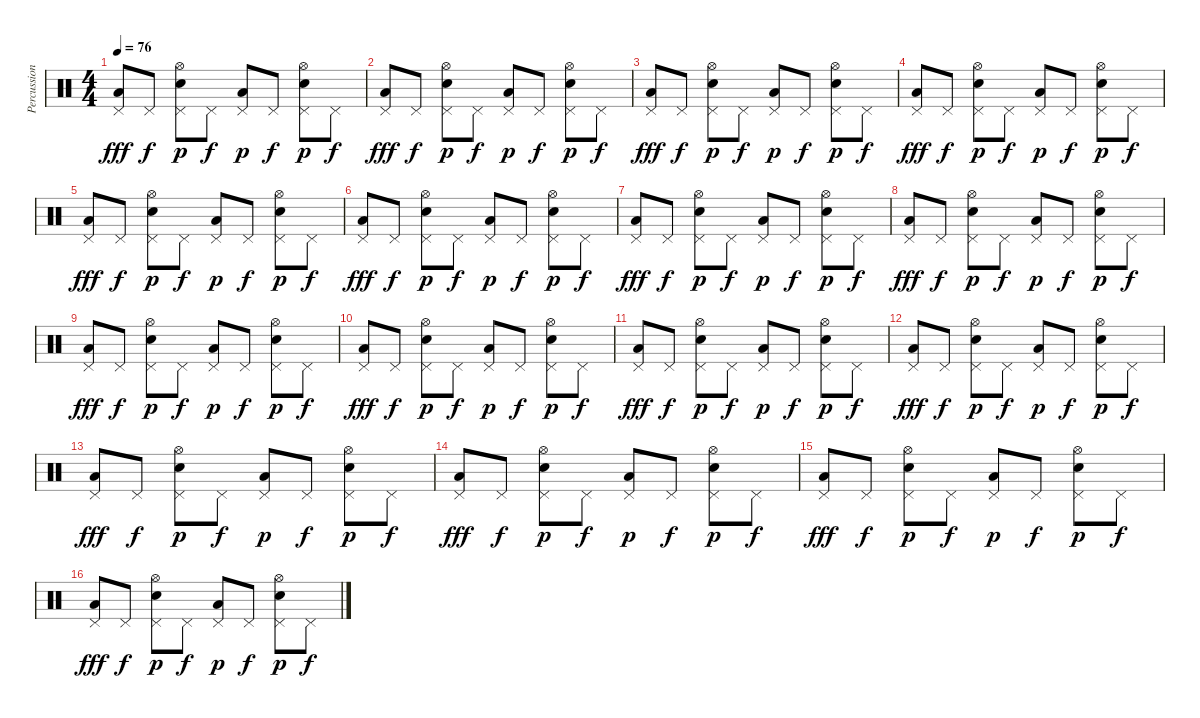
\track ("Percussion" "Percussion") {instrument percussion}
\staff {score}
\articulation defaults
\ts (4 4)
\tempo 76
\clef neutral
\ks c
("Low Floor Tom (hit)" "Pedal Hi-Hat (hit)").8{dy fff} "Pedal Hi-Hat (hit)".8{dy f} ("Electric Snare (hit)" "Pedal Hi-Hat (hit)" "Hi-Hat (open)").8{dy p} "Pedal Hi-Hat (hit)".8{dy f} ("Low Floor Tom (hit)" "Pedal Hi-Hat (hit)").8{dy p} "Pedal Hi-Hat (hit)".8{dy f} ("Electric Snare (hit)" "Pedal Hi-Hat (hit)" "Hi-Hat (open)").8{dy p} "Pedal Hi-Hat (hit)".8{dy f} |
("Low Floor Tom (hit)" "Pedal Hi-Hat (hit)").8{dy fff} "Pedal Hi-Hat (hit)".8{dy f} ("Electric Snare (hit)" "Pedal Hi-Hat (hit)" "Hi-Hat (open)").8{dy p} "Pedal Hi-Hat (hit)".8{dy f} ("Low Floor Tom (hit)" "Pedal Hi-Hat (hit)").8{dy p} "Pedal Hi-Hat (hit)".8{dy f} ("Electric Snare (hit)" "Pedal Hi-Hat (hit)" "Hi-Hat (open)").8{dy p} "Pedal Hi-Hat (hit)".8{dy f} |
("Low Floor Tom (hit)" "Pedal Hi-Hat (hit)").8{dy fff} "Pedal Hi-Hat (hit)".8{dy f} ("Electric Snare (hit)" "Pedal Hi-Hat (hit)" "Hi-Hat (open)").8{dy p} "Pedal Hi-Hat (hit)".8{dy f} ("Low Floor Tom (hit)" "Pedal Hi-Hat (hit)").8{dy p} "Pedal Hi-Hat (hit)".8{dy f} ("Electric Snare (hit)" "Pedal Hi-Hat (hit)" "Hi-Hat (open)").8{dy p} "Pedal Hi-Hat (hit)".8{dy f} |
("Low Floor Tom (hit)" "Pedal Hi-Hat (hit)").8{dy fff} "Pedal Hi-Hat (hit)".8{dy f} ("Electric Snare (hit)" "Pedal Hi-Hat (hit)" "Hi-Hat (open)").8{dy p} "Pedal Hi-Hat (hit)".8{dy f} ("Low Floor Tom (hit)" "Pedal Hi-Hat (hit)").8{dy p} "Pedal Hi-Hat (hit)".8{dy f} ("Electric Snare (hit)" "Pedal Hi-Hat (hit)" "Hi-Hat (open)").8{dy p} "Pedal Hi-Hat (hit)".8{dy f} |
("Low Floor Tom (hit)" "Pedal Hi-Hat (hit)").8{dy fff} "Pedal Hi-Hat (hit)".8{dy f} ("Electric Snare (hit)" "Pedal Hi-Hat (hit)" "Hi-Hat (open)").8{dy p} "Pedal Hi-Hat (hit)".8{dy f} ("Low Floor Tom (hit)" "Pedal Hi-Hat (hit)").8{dy p} "Pedal Hi-Hat (hit)".8{dy f} ("Electric Snare (hit)" "Pedal Hi-Hat (hit)" "Hi-Hat (open)").8{dy p} "Pedal Hi-Hat (hit)".8{dy f} |
("Low Floor Tom (hit)" "Pedal Hi-Hat (hit)").8{dy fff} "Pedal Hi-Hat (hit)".8{dy f} ("Electric Snare (hit)" "Pedal Hi-Hat (hit)" "Hi-Hat (open)").8{dy p} "Pedal Hi-Hat (hit)".8{dy f} ("Low Floor Tom (hit)" "Pedal Hi-Hat (hit)").8{dy p} "Pedal Hi-Hat (hit)".8{dy f} ("Electric Snare (hit)" "Pedal Hi-Hat (hit)" "Hi-Hat (open)").8{dy p} "Pedal Hi-Hat (hit)".8{dy f} |
("Low Floor Tom (hit)" "Pedal Hi-Hat (hit)").8{dy fff} "Pedal Hi-Hat (hit)".8{dy f} ("Electric Snare (hit)" "Pedal Hi-Hat (hit)" "Hi-Hat (open)").8{dy p} "Pedal Hi-Hat (hit)".8{dy f} ("Low Floor Tom (hit)" "Pedal Hi-Hat (hit)").8{dy p} "Pedal Hi-Hat (hit)".8{dy f} ("Electric Snare (hit)" "Pedal Hi-Hat (hit)" "Hi-Hat (open)").8{dy p} "Pedal Hi-Hat (hit)".8{dy f} |
("Low Floor Tom (hit)" "Pedal Hi-Hat (hit)").8{dy fff} "Pedal Hi-Hat (hit)".8{dy f} ("Electric Snare (hit)" "Pedal Hi-Hat (hit)" "Hi-Hat (open)").8{dy p} "Pedal Hi-Hat (hit)".8{dy f} ("Low Floor Tom (hit)" "Pedal Hi-Hat (hit)").8{dy p} "Pedal Hi-Hat (hit)".8{dy f} ("Electric Snare (hit)" "Pedal Hi-Hat (hit)" "Hi-Hat (open)").8{dy p} "Pedal Hi-Hat (hit)".8{dy f} |
("Low Floor Tom (hit)" "Pedal Hi-Hat (hit)").8{dy fff} "Pedal Hi-Hat (hit)".8{dy f} ("Electric Snare (hit)" "Pedal Hi-Hat (hit)" "Hi-Hat (open)").8{dy p} "Pedal Hi-Hat (hit)".8{dy f} ("Low Floor Tom (hit)" "Pedal Hi-Hat (hit)").8{dy p} "Pedal Hi-Hat (hit)".8{dy f} ("Electric Snare (hit)" "Pedal Hi-Hat (hit)" "Hi-Hat (open)").8{dy p} "Pedal Hi-Hat (hit)".8{dy f} |
("Low Floor Tom (hit)" "Pedal Hi-Hat (hit)").8{dy fff} "Pedal Hi-Hat (hit)".8{dy f} ("Electric Snare (hit)" "Pedal Hi-Hat (hit)" "Hi-Hat (open)").8{dy p} "Pedal Hi-Hat (hit)".8{dy f} ("Low Floor Tom (hit)" "Pedal Hi-Hat (hit)").8{dy p} "Pedal Hi-Hat (hit)".8{dy f} ("Electric Snare (hit)" "Pedal Hi-Hat (hit)" "Hi-Hat (open)").8{dy p} "Pedal Hi-Hat (hit)".8{dy f} |
("Low Floor Tom (hit)" "Pedal Hi-Hat (hit)").8{dy fff} "Pedal Hi-Hat (hit)".8{dy f} ("Electric Snare (hit)" "Pedal Hi-Hat (hit)" "Hi-Hat (open)").8{dy p} "Pedal Hi-Hat (hit)".8{dy f} ("Low Floor Tom (hit)" "Pedal Hi-Hat (hit)").8{dy p} "Pedal Hi-Hat (hit)".8{dy f} ("Electric Snare (hit)" "Pedal Hi-Hat (hit)" "Hi-Hat (open)").8{dy p} "Pedal Hi-Hat (hit)".8{dy f} |
("Low Floor Tom (hit)" "Pedal Hi-Hat (hit)").8{dy fff} "Pedal Hi-Hat (hit)".8{dy f} ("Electric Snare (hit)" "Pedal Hi-Hat (hit)" "Hi-Hat (open)").8{dy p} "Pedal Hi-Hat (hit)".8{dy f} ("Low Floor Tom (hit)" "Pedal Hi-Hat (hit)").8{dy p} "Pedal Hi-Hat (hit)".8{dy f} ("Electric Snare (hit)" "Pedal Hi-Hat (hit)" "Hi-Hat (open)").8{dy p} "Pedal Hi-Hat (hit)".8{dy f} |
("Low Floor Tom (hit)" "Pedal Hi-Hat (hit)").8{dy fff} "Pedal Hi-Hat (hit)".8{dy f} ("Electric Snare (hit)" "Pedal Hi-Hat (hit)" "Hi-Hat (open)").8{dy p} "Pedal Hi-Hat (hit)".8{dy f} ("Low Floor Tom (hit)" "Pedal Hi-Hat (hit)").8{dy p} "Pedal Hi-Hat (hit)".8{dy f} ("Electric Snare (hit)" "Pedal Hi-Hat (hit)" "Hi-Hat (open)").8{dy p} "Pedal Hi-Hat (hit)".8{dy f} |
("Low Floor Tom (hit)" "Pedal Hi-Hat (hit)").8{dy fff} "Pedal Hi-Hat (hit)".8{dy f} ("Electric Snare (hit)" "Pedal Hi-Hat (hit)" "Hi-Hat (open)").8{dy p} "Pedal Hi-Hat (hit)".8{dy f} ("Low Floor Tom (hit)" "Pedal Hi-Hat (hit)").8{dy p} "Pedal Hi-Hat (hit)".8{dy f} ("Electric Snare (hit)" "Pedal Hi-Hat (hit)" "Hi-Hat (open)").8{dy p} "Pedal Hi-Hat (hit)".8{dy f} |
("Low Floor Tom (hit)" "Pedal Hi-Hat (hit)").8{dy fff} "Pedal Hi-Hat (hit)".8{dy f} ("Electric Snare (hit)" "Pedal Hi-Hat (hit)" "Hi-Hat (open)").8{dy p} "Pedal Hi-Hat (hit)".8{dy f} ("Low Floor Tom (hit)" "Pedal Hi-Hat (hit)").8{dy p} "Pedal Hi-Hat (hit)".8{dy f} ("Electric Snare (hit)" "Pedal Hi-Hat (hit)" "Hi-Hat (open)").8{dy p} "Pedal Hi-Hat (hit)".8{dy f} |
("Low Floor Tom (hit)" "Pedal Hi-Hat (hit)").8{dy fff} "Pedal Hi-Hat (hit)".8{dy f} ("Electric Snare (hit)" "Pedal Hi-Hat (hit)" "Hi-Hat (open)").8{dy p} "Pedal Hi-Hat (hit)".8{dy f} ("Low Floor Tom (hit)" "Pedal Hi-Hat (hit)").8{dy p} "Pedal Hi-Hat (hit)".8{dy f} ("Electric Snare (hit)" "Pedal Hi-Hat (hit)" "Hi-Hat (open)").8{dy p} "Pedal Hi-Hat (hit)".8{dy f}
